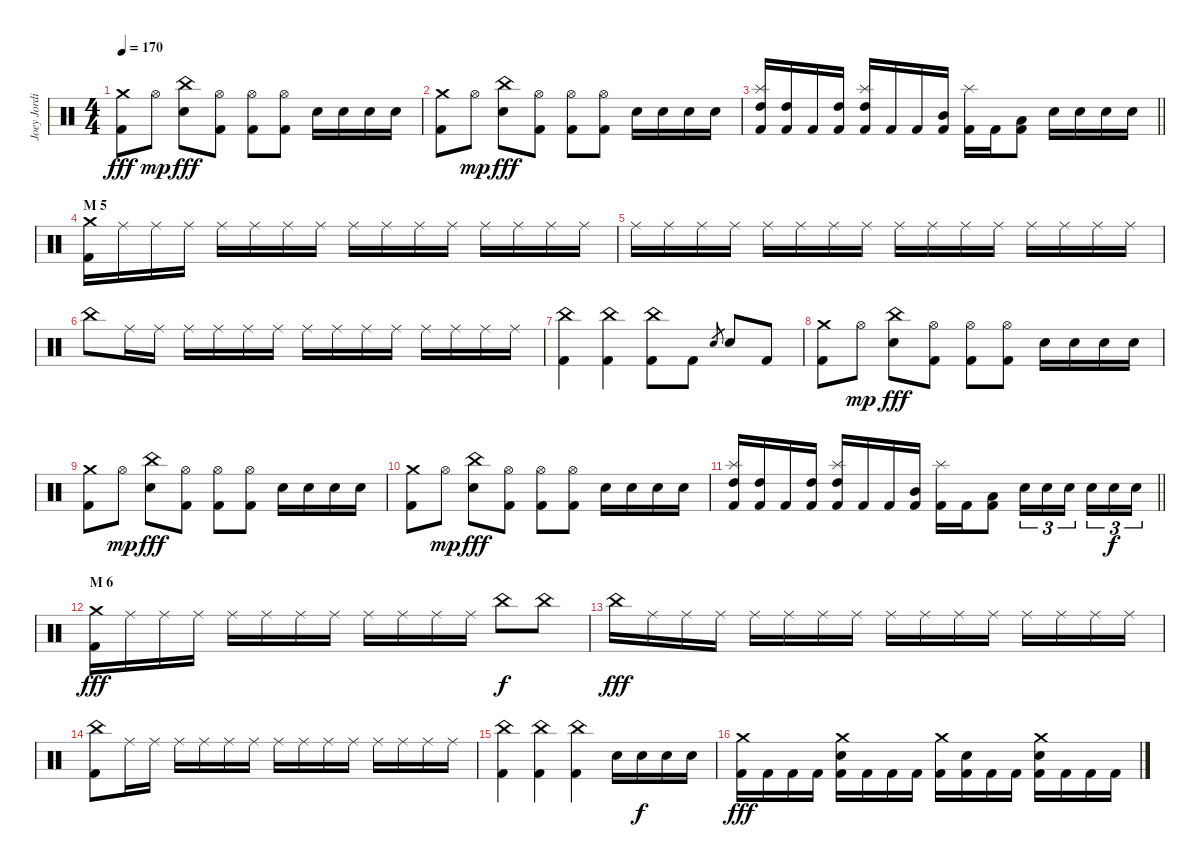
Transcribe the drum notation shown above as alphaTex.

\track ("Joey Jordison" "Joey Jordi") {instrument percussion}
\staff {score}
\articulation defaults
\ts (4 4)
\tempo 170
\clef neutral
\ks c
("Crash medium (hit)" "Kick (hit) 2").8{dy fff} "Hi-Hat (open)".8{dy mp} ("China (hit)" "Electric Snare (hit)").8{dy fff} ("Hi-Hat (open)" "Kick (hit) 2").8 ("Hi-Hat (open)" "Kick (hit) 2").8 ("Hi-Hat (open)" "Kick (hit) 2").8 "Electric Snare (hit)".16 "Electric Snare (hit)".16 "Electric Snare (hit)".16 "Electric Snare (hit)".16 |
("Crash medium (hit)" "Kick (hit) 2").8 "Hi-Hat (open)".8{dy mp} ("China (hit)" "Electric Snare (hit)").8{dy fff} ("Hi-Hat (open)" "Kick (hit) 2").8 ("Hi-Hat (open)" "Kick (hit) 2").8 ("Hi-Hat (open)" "Kick (hit) 2").8 "Electric Snare (hit)".16 "Electric Snare (hit)".16 "Electric Snare (hit)".16 "Electric Snare (hit)".16 |
\barLineRight lightlight
("Splash (hit)" "High Tom (hit)" "Kick (hit) 2").16 ("High Tom (hit)" "Kick (hit) 2").16 "Kick (hit) 2".16 ("High Tom (hit)" "Kick (hit) 2").16 ("Splash (hit)" "High Tom (hit)" "Kick (hit) 2").16 "Kick (hit) 2".16 "Kick (hit) 2".16 ("Mid Tom (hit)" "Kick (hit) 2").16 ("Splash (hit)" "Kick (hit) 2").16 "Kick (hit) 2".16 ("Low Tom (hit)" "Kick (hit) 2").8 "Electric Snare (hit)".16 "Electric Snare (hit)".16 "Electric Snare (hit)".16 "Electric Snare (hit)".16 |
\section ("" "M 5")
("Crash medium (hit)" "Kick (hit) 2").16 "Ride (middle)".16 "Ride (middle)".16 "Ride (middle)".16 "Ride (middle)".16 "Ride (middle)".16 "Ride (middle)".16 "Ride (middle)".16 "Ride (middle)".16 "Ride (middle)".16 "Ride (middle)".16 "Ride (middle)".16 "Ride (middle)".16 "Ride (middle)".16 "Ride (middle)".16 "Ride (middle)".16 |
"Ride (middle)".16 "Ride (middle)".16 "Ride (middle)".16 "Ride (middle)".16 "Ride (middle)".16 "Ride (middle)".16 "Ride (middle)".16 "Ride (middle)".16 "Ride (middle)".16 "Ride (middle)".16 "Ride (middle)".16 "Ride (middle)".16 "Ride (middle)".16 "Ride (middle)".16 "Ride (middle)".16 "Ride (middle)".16 |
"China (hit)".8 "Ride (middle)".16 "Ride (middle)".16 "Ride (middle)".16 "Ride (middle)".16 "Ride (middle)".16 "Ride (middle)".16 "Ride (middle)".16 "Ride (middle)".16 "Ride (middle)".16 "Ride (middle)".16 "Ride (middle)".16 "Ride (middle)".16 "Ride (middle)".16 "Ride (middle)".16 |
("China (hit)" "Kick (hit) 2").4 ("China (hit)" "Kick (hit) 2").4 ("China (hit)" "Kick (hit) 2").8 "Kick (hit) 2".8 "Electric Snare (hit)".8{gr} "Electric Snare (hit)".8 "Kick (hit) 2".8 |
("Crash medium (hit)" "Kick (hit) 2").8 "Hi-Hat (open)".8{dy mp} ("China (hit)" "Electric Snare (hit)").8{dy fff} ("Hi-Hat (open)" "Kick (hit) 2").8 ("Hi-Hat (open)" "Kick (hit) 2").8 ("Hi-Hat (open)" "Kick (hit) 2").8 "Electric Snare (hit)".16 "Electric Snare (hit)".16 "Electric Snare (hit)".16 "Electric Snare (hit)".16 |
("Crash medium (hit)" "Kick (hit) 2").8 "Hi-Hat (open)".8{dy mp} ("China (hit)" "Electric Snare (hit)").8{dy fff} ("Hi-Hat (open)" "Kick (hit) 2").8 ("Hi-Hat (open)" "Kick (hit) 2").8 ("Hi-Hat (open)" "Kick (hit) 2").8 "Electric Snare (hit)".16 "Electric Snare (hit)".16 "Electric Snare (hit)".16 "Electric Snare (hit)".16 |
("Crash medium (hit)" "Kick (hit) 2").8 "Hi-Hat (open)".8{dy mp} ("China (hit)" "Electric Snare (hit)").8{dy fff} ("Hi-Hat (open)" "Kick (hit) 2").8 ("Hi-Hat (open)" "Kick (hit) 2").8 ("Hi-Hat (open)" "Kick (hit) 2").8 "Electric Snare (hit)".16 "Electric Snare (hit)".16 "Electric Snare (hit)".16 "Electric Snare (hit)".16 |
\barLineRight lightlight
("Splash (hit)" "High Tom (hit)" "Kick (hit) 2").16 ("High Tom (hit)" "Kick (hit) 2").16 "Kick (hit) 2".16 ("High Tom (hit)" "Kick (hit) 2").16 ("Splash (hit)" "High Tom (hit)" "Kick (hit) 2").16 "Kick (hit) 2".16 "Kick (hit) 2".16 ("Mid Tom (hit)" "Kick (hit) 2").16 ("Splash (hit)" "Kick (hit) 2").16 "Kick (hit) 2".16 ("Low Tom (hit)" "Kick (hit) 2").8 "Electric Snare (hit)".16{tu (3 2)} "Electric Snare (hit)".16{tu (3 2)} "Electric Snare (hit)".16{tu (3 2) beam splitsecondary} "Electric Snare (hit)".16{tu (3 2)} "Electric Snare (hit)".16{tu (3 2) dy f} "Electric Snare (hit)".16{tu (3 2)} |
\section ("" "M 6")
("Crash medium (hit)" "Kick (hit) 2").16{dy fff} "Ride (middle)".16 "Ride (middle)".16 "Ride (middle)".16 "Ride (middle)".16 "Ride (middle)".16 "Ride (middle)".16 "Ride (middle)".16 "Ride (middle)".16 "Ride (middle)".16 "Ride (middle)".16 "Ride (middle)".16 "China (hit)".8{dy f} "China (hit)".8 |
"China (hit)".16{dy fff} "Ride (middle)".16 "Ride (middle)".16 "Ride (middle)".16 "Ride (middle)".16 "Ride (middle)".16 "Ride (middle)".16 "Ride (middle)".16 "Ride (middle)".16 "Ride (middle)".16 "Ride (middle)".16 "Ride (middle)".16 "Ride (middle)".16 "Ride (middle)".16 "Ride (middle)".16 "Ride (middle)".16 |
("China (hit)" "Kick (hit) 2").8 "Ride (middle)".16 "Ride (middle)".16 "Ride (middle)".16 "Ride (middle)".16 "Ride (middle)".16 "Ride (middle)".16 "Ride (middle)".16 "Ride (middle)".16 "Ride (middle)".16 "Ride (middle)".16 "Ride (middle)".16 "Ride (middle)".16 "Ride (middle)".16 "Ride (middle)".16 |
("China (hit)" "Kick (hit) 2").4 ("China (hit)" "Kick (hit) 2").4 ("China (hit)" "Kick (hit) 2").4 "Electric Snare (hit)".16 "Electric Snare (hit)".16{dy f} "Electric Snare (hit)".16 "Electric Snare (hit)".16 |
("Crash medium (hit)" "Kick (hit) 2").16{dy fff} "Kick (hit) 2".16 "Kick (hit) 2".16 "Kick (hit) 2".16 ("Crash medium (hit)" "Electric Snare (hit)" "Kick (hit) 2").16 "Kick (hit) 2".16 "Kick (hit) 2".16 "Kick (hit) 2".16 ("Crash medium (hit)" "Kick (hit) 2").16 ("Electric Snare (hit)" "Kick (hit) 2").16 "Kick (hit) 2".16 "Kick (hit) 2".16 ("Crash medium (hit)" "Electric Snare (hit)" "Kick (hit) 2").16 "Kick (hit) 2".16 "Kick (hit) 2".16 "Kick (hit) 2".16
